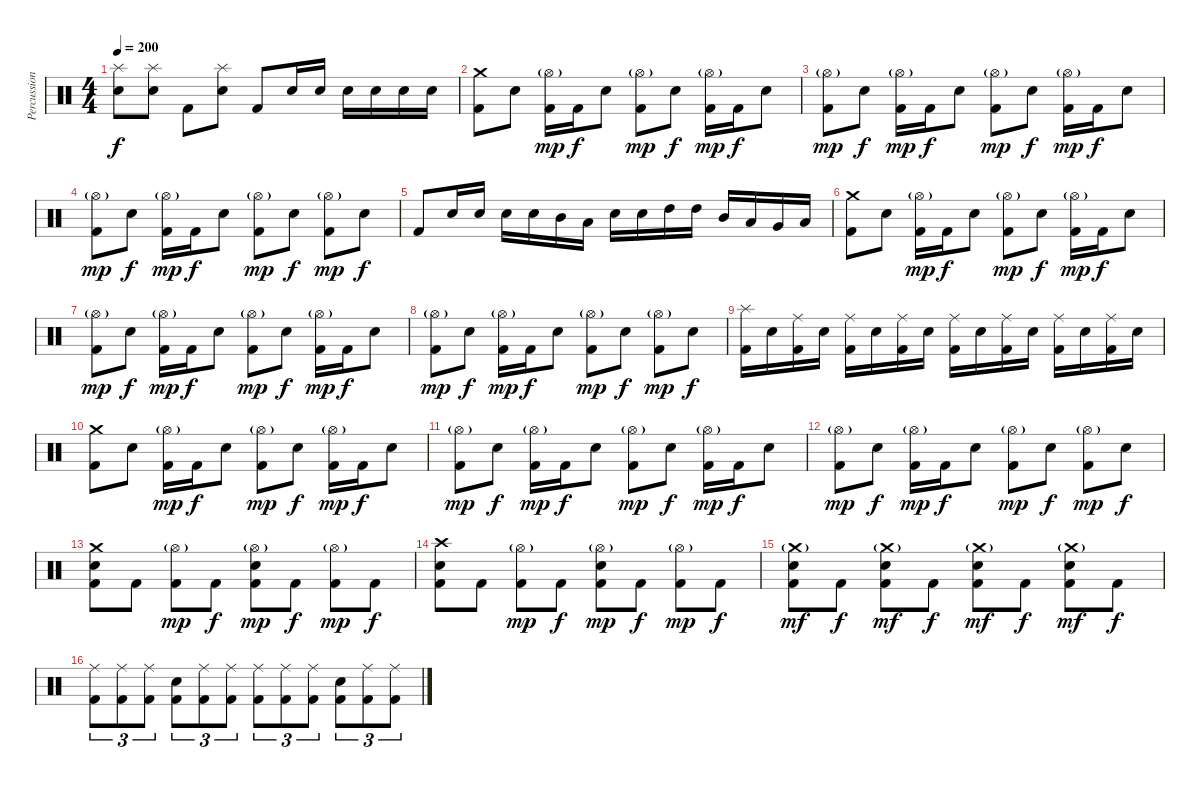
\track ("Percussion" "Percussion") {instrument percussion}
\staff {score}
\articulation defaults
\ts (4 4)
\tempo 200
\clef neutral
\ks c
("Splash (hit)" "Electric Snare (hit)").8{dy f} ("Splash (hit)" "Electric Snare (hit)").8 "Kick (hit) 2".8 ("Splash (hit)" "Electric Snare (hit)").8 "Kick (hit) 2".8 "Electric Snare (hit)".16 "Electric Snare (hit)".16 "Electric Snare (hit)".16 "Electric Snare (hit)".16 "Electric Snare (hit)".16 "Electric Snare (hit)".16 |
("Crash medium (hit)" "Kick (hit) 2").8 "Electric Snare (hit)".8 ("Hi-Hat (open)"{g} "Kick (hit) 2").16{dy mp} "Kick (hit) 2".16{dy f} "Electric Snare (hit)".8 ("Hi-Hat (open)"{g} "Kick (hit) 2").8{dy mp} "Electric Snare (hit)".8{dy f} ("Hi-Hat (open)"{g} "Kick (hit) 2").16{dy mp} "Kick (hit) 2".16{dy f} "Electric Snare (hit)".8 |
("Hi-Hat (open)"{g} "Kick (hit) 2").8{dy mp} "Electric Snare (hit)".8{dy f} ("Hi-Hat (open)"{g} "Kick (hit) 2").16{dy mp} "Kick (hit) 2".16{dy f} "Electric Snare (hit)".8 ("Hi-Hat (open)"{g} "Kick (hit) 2").8{dy mp} "Electric Snare (hit)".8{dy f} ("Hi-Hat (open)"{g} "Kick (hit) 2").16{dy mp} "Kick (hit) 2".16{dy f} "Electric Snare (hit)".8 |
("Hi-Hat (open)"{g} "Kick (hit) 2").8{dy mp} "Electric Snare (hit)".8{dy f} ("Hi-Hat (open)"{g} "Kick (hit) 2").16{dy mp} "Kick (hit) 2".16{dy f} "Electric Snare (hit)".8 ("Hi-Hat (open)"{g} "Kick (hit) 2").8{dy mp} "Electric Snare (hit)".8{dy f} ("Hi-Hat (open)"{g} "Kick (hit) 2").8{dy mp} "Electric Snare (hit)".8{dy f} |
"Kick (hit) 2".8 "Electric Snare (hit)".16 "Electric Snare (hit)".16 "Electric Snare (hit)".16 "Electric Snare (hit)".16 "Mid Tom (hit)".16 "Low Tom (hit)".16 "Electric Snare (hit)".16 "Electric Snare (hit)".16 "High Tom (hit)".16 "High Tom (hit)".16 "Mid Tom (hit)".16 "Low Tom (hit)".16 "Very Low Tom (hit)".16 "Low Floor Tom (hit)".16 |
("Crash medium (hit)" "Kick (hit) 2").8 "Electric Snare (hit)".8 ("Hi-Hat (open)"{g} "Kick (hit) 2").16{dy mp} "Kick (hit) 2".16{dy f} "Electric Snare (hit)".8 ("Hi-Hat (open)"{g} "Kick (hit) 2").8{dy mp} "Electric Snare (hit)".8{dy f} ("Hi-Hat (open)"{g} "Kick (hit) 2").16{dy mp} "Kick (hit) 2".16{dy f} "Electric Snare (hit)".8 |
("Hi-Hat (open)"{g} "Kick (hit) 2").8{dy mp} "Electric Snare (hit)".8{dy f} ("Hi-Hat (open)"{g} "Kick (hit) 2").16{dy mp} "Kick (hit) 2".16{dy f} "Electric Snare (hit)".8 ("Hi-Hat (open)"{g} "Kick (hit) 2").8{dy mp} "Electric Snare (hit)".8{dy f} ("Hi-Hat (open)"{g} "Kick (hit) 2").16{dy mp} "Kick (hit) 2".16{dy f} "Electric Snare (hit)".8 |
("Hi-Hat (open)"{g} "Kick (hit) 2").8{dy mp} "Electric Snare (hit)".8{dy f} ("Hi-Hat (open)"{g} "Kick (hit) 2").16{dy mp} "Kick (hit) 2".16{dy f} "Electric Snare (hit)".8 ("Hi-Hat (open)"{g} "Kick (hit) 2").8{dy mp} "Electric Snare (hit)".8{dy f} ("Hi-Hat (open)"{g} "Kick (hit) 2").8{dy mp} "Electric Snare (hit)".8{dy f} |
("Splash (hit)" "Kick (hit) 2").16 "Electric Snare (hit)".16 ("Ride (middle)" "Kick (hit) 2").16 "Electric Snare (hit)".16 ("Ride (middle)" "Kick (hit) 2").16 "Electric Snare (hit)".16 ("Ride (middle)" "Kick (hit) 2").16 "Electric Snare (hit)".16 ("Ride (middle)" "Kick (hit) 2").16 "Electric Snare (hit)".16 ("Ride (middle)" "Kick (hit) 2").16 "Electric Snare (hit)".16 ("Ride (middle)" "Kick (hit) 2").16 "Electric Snare (hit)".16 ("Ride (middle)" "Kick (hit) 2").16 "Electric Snare (hit)".16 |
("Crash medium (hit)" "Kick (hit) 2").8 "Electric Snare (hit)".8 ("Hi-Hat (open)"{g} "Kick (hit) 2").16{dy mp} "Kick (hit) 2".16{dy f} "Electric Snare (hit)".8 ("Hi-Hat (open)"{g} "Kick (hit) 2").8{dy mp} "Electric Snare (hit)".8{dy f} ("Hi-Hat (open)"{g} "Kick (hit) 2").16{dy mp} "Kick (hit) 2".16{dy f} "Electric Snare (hit)".8 |
("Hi-Hat (open)"{g} "Kick (hit) 2").8{dy mp} "Electric Snare (hit)".8{dy f} ("Hi-Hat (open)"{g} "Kick (hit) 2").16{dy mp} "Kick (hit) 2".16{dy f} "Electric Snare (hit)".8 ("Hi-Hat (open)"{g} "Kick (hit) 2").8{dy mp} "Electric Snare (hit)".8{dy f} ("Hi-Hat (open)"{g} "Kick (hit) 2").16{dy mp} "Kick (hit) 2".16{dy f} "Electric Snare (hit)".8 |
("Hi-Hat (open)"{g} "Kick (hit) 2").8{dy mp} "Electric Snare (hit)".8{dy f} ("Hi-Hat (open)"{g} "Kick (hit) 2").16{dy mp} "Kick (hit) 2".16{dy f} "Electric Snare (hit)".8 ("Hi-Hat (open)"{g} "Kick (hit) 2").8{dy mp} "Electric Snare (hit)".8{dy f} ("Hi-Hat (open)"{g} "Kick (hit) 2").8{dy mp} "Electric Snare (hit)".8{dy f} |
("Crash medium (hit)" "Electric Snare (hit)" "Kick (hit) 2").8 "Kick (hit) 2".8 ("Hi-Hat (open)"{g} "Kick (hit) 2").8{dy mp} "Kick (hit) 2".8{dy f} ("Hi-Hat (open)"{g} "Electric Snare (hit)" "Kick (hit) 2").8{dy mp} "Kick (hit) 2".8{dy f} ("Hi-Hat (open)"{g} "Kick (hit) 2").8{dy mp} "Kick (hit) 2".8{dy f} |
("Crash high (hit)" "Electric Snare (hit)" "Kick (hit) 2").8 "Kick (hit) 2".8 ("Hi-Hat (open)"{g} "Kick (hit) 2").8{dy mp} "Kick (hit) 2".8{dy f} ("Hi-Hat (open)"{g} "Electric Snare (hit)" "Kick (hit) 2").8{dy mp} "Kick (hit) 2".8{dy f} ("Hi-Hat (open)"{g} "Kick (hit) 2").8{dy mp} "Kick (hit) 2".8{dy f} |
("Crash medium (hit)"{g} "Electric Snare (hit)" "Kick (hit) 2").8{dy mf} "Kick (hit) 2".8{dy f} ("Crash medium (hit)"{g} "Electric Snare (hit)" "Kick (hit) 2").8{dy mf} "Kick (hit) 2".8{dy f} ("Crash medium (hit)"{g} "Electric Snare (hit)" "Kick (hit) 2").8{dy mf} "Kick (hit) 2".8{dy f} ("Crash medium (hit)"{g} "Electric Snare (hit)" "Kick (hit) 2").8{dy mf} "Kick (hit) 2".8{dy f} |
("Ride (middle)" "Kick (hit) 2").8{tu (3 2)} ("Ride (middle)" "Kick (hit) 2").8{tu (3 2)} ("Ride (middle)" "Kick (hit) 2").8{tu (3 2)} ("Electric Snare (hit)" "Kick (hit) 2").8{tu (3 2)} ("Ride (middle)" "Kick (hit) 2").8{tu (3 2)} ("Ride (middle)" "Kick (hit) 2").8{tu (3 2)} ("Ride (middle)" "Kick (hit) 2").8{tu (3 2)} ("Ride (middle)" "Kick (hit) 2").8{tu (3 2)} ("Ride (middle)" "Kick (hit) 2").8{tu (3 2)} ("Electric Snare (hit)" "Kick (hit) 2").8{tu (3 2)} ("Ride (middle)" "Kick (hit) 2").8{tu (3 2)} ("Ride (middle)" "Kick (hit) 2").8{tu (3 2)}
